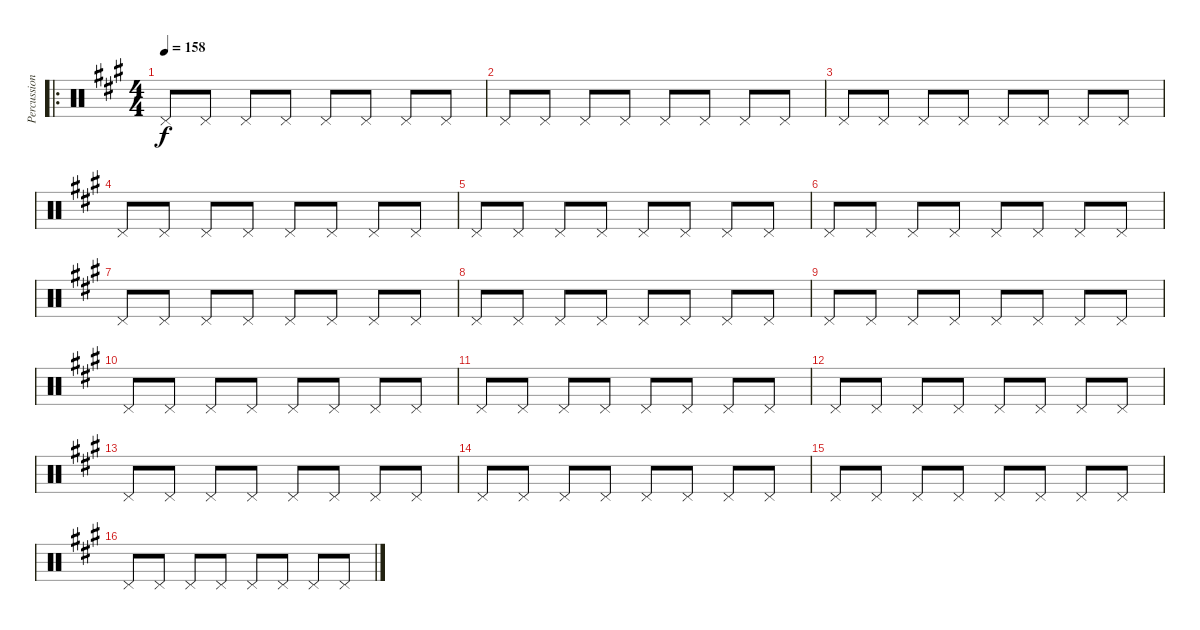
\track ("Percussion" "Percussion") {instrument percussion}
\staff {score}
\articulation defaults
\ro
\ts (4 4)
\tempo 158
\clef neutral
\ks a "Pedal Hi-Hat (hit)".8{dy f} "Pedal Hi-Hat (hit)".8 "Pedal Hi-Hat (hit)".8 "Pedal Hi-Hat (hit)".8 "Pedal Hi-Hat (hit)".8 "Pedal Hi-Hat (hit)".8 "Pedal Hi-Hat (hit)".8 "Pedal Hi-Hat (hit)".8
|
"Pedal Hi-Hat (hit)".8 "Pedal Hi-Hat (hit)".8 "Pedal Hi-Hat (hit)".8 "Pedal Hi-Hat (hit)".8 "Pedal Hi-Hat (hit)".8 "Pedal Hi-Hat (hit)".8 "Pedal Hi-Hat (hit)".8 "Pedal Hi-Hat (hit)".8 |
"Pedal Hi-Hat (hit)".8 "Pedal Hi-Hat (hit)".8 "Pedal Hi-Hat (hit)".8 "Pedal Hi-Hat (hit)".8 "Pedal Hi-Hat (hit)".8 "Pedal Hi-Hat (hit)".8 "Pedal Hi-Hat (hit)".8 "Pedal Hi-Hat (hit)".8 |
"Pedal Hi-Hat (hit)".8 "Pedal Hi-Hat (hit)".8 "Pedal Hi-Hat (hit)".8 "Pedal Hi-Hat (hit)".8 "Pedal Hi-Hat (hit)".8 "Pedal Hi-Hat (hit)".8 "Pedal Hi-Hat (hit)".8 "Pedal Hi-Hat (hit)".8 |
"Pedal Hi-Hat (hit)".8 "Pedal Hi-Hat (hit)".8 "Pedal Hi-Hat (hit)".8 "Pedal Hi-Hat (hit)".8 "Pedal Hi-Hat (hit)".8 "Pedal Hi-Hat (hit)".8 "Pedal Hi-Hat (hit)".8 "Pedal Hi-Hat (hit)".8 |
"Pedal Hi-Hat (hit)".8 "Pedal Hi-Hat (hit)".8 "Pedal Hi-Hat (hit)".8 "Pedal Hi-Hat (hit)".8 "Pedal Hi-Hat (hit)".8 "Pedal Hi-Hat (hit)".8 "Pedal Hi-Hat (hit)".8 "Pedal Hi-Hat (hit)".8 |
"Pedal Hi-Hat (hit)".8 "Pedal Hi-Hat (hit)".8 "Pedal Hi-Hat (hit)".8 "Pedal Hi-Hat (hit)".8 "Pedal Hi-Hat (hit)".8 "Pedal Hi-Hat (hit)".8 "Pedal Hi-Hat (hit)".8 "Pedal Hi-Hat (hit)".8 |
"Pedal Hi-Hat (hit)".8 "Pedal Hi-Hat (hit)".8 "Pedal Hi-Hat (hit)".8 "Pedal Hi-Hat (hit)".8 "Pedal Hi-Hat (hit)".8 "Pedal Hi-Hat (hit)".8 "Pedal Hi-Hat (hit)".8 "Pedal Hi-Hat (hit)".8 |
"Pedal Hi-Hat (hit)".8 "Pedal Hi-Hat (hit)".8 "Pedal Hi-Hat (hit)".8 "Pedal Hi-Hat (hit)".8 "Pedal Hi-Hat (hit)".8 "Pedal Hi-Hat (hit)".8 "Pedal Hi-Hat (hit)".8 "Pedal Hi-Hat (hit)".8 |
"Pedal Hi-Hat (hit)".8 "Pedal Hi-Hat (hit)".8 "Pedal Hi-Hat (hit)".8 "Pedal Hi-Hat (hit)".8 "Pedal Hi-Hat (hit)".8 "Pedal Hi-Hat (hit)".8 "Pedal Hi-Hat (hit)".8 "Pedal Hi-Hat (hit)".8 |
"Pedal Hi-Hat (hit)".8 "Pedal Hi-Hat (hit)".8 "Pedal Hi-Hat (hit)".8 "Pedal Hi-Hat (hit)".8 "Pedal Hi-Hat (hit)".8 "Pedal Hi-Hat (hit)".8 "Pedal Hi-Hat (hit)".8 "Pedal Hi-Hat (hit)".8 |
"Pedal Hi-Hat (hit)".8 "Pedal Hi-Hat (hit)".8 "Pedal Hi-Hat (hit)".8 "Pedal Hi-Hat (hit)".8 "Pedal Hi-Hat (hit)".8 "Pedal Hi-Hat (hit)".8 "Pedal Hi-Hat (hit)".8 "Pedal Hi-Hat (hit)".8 |
"Pedal Hi-Hat (hit)".8 "Pedal Hi-Hat (hit)".8 "Pedal Hi-Hat (hit)".8 "Pedal Hi-Hat (hit)".8 "Pedal Hi-Hat (hit)".8 "Pedal Hi-Hat (hit)".8 "Pedal Hi-Hat (hit)".8 "Pedal Hi-Hat (hit)".8 |
"Pedal Hi-Hat (hit)".8 "Pedal Hi-Hat (hit)".8 "Pedal Hi-Hat (hit)".8 "Pedal Hi-Hat (hit)".8 "Pedal Hi-Hat (hit)".8 "Pedal Hi-Hat (hit)".8 "Pedal Hi-Hat (hit)".8 "Pedal Hi-Hat (hit)".8 |
"Pedal Hi-Hat (hit)".8 "Pedal Hi-Hat (hit)".8 "Pedal Hi-Hat (hit)".8 "Pedal Hi-Hat (hit)".8 "Pedal Hi-Hat (hit)".8 "Pedal Hi-Hat (hit)".8 "Pedal Hi-Hat (hit)".8 "Pedal Hi-Hat (hit)".8 |
"Pedal Hi-Hat (hit)".8 "Pedal Hi-Hat (hit)".8 "Pedal Hi-Hat (hit)".8 "Pedal Hi-Hat (hit)".8 "Pedal Hi-Hat (hit)".8 "Pedal Hi-Hat (hit)".8 "Pedal Hi-Hat (hit)".8 "Pedal Hi-Hat (hit)".8
